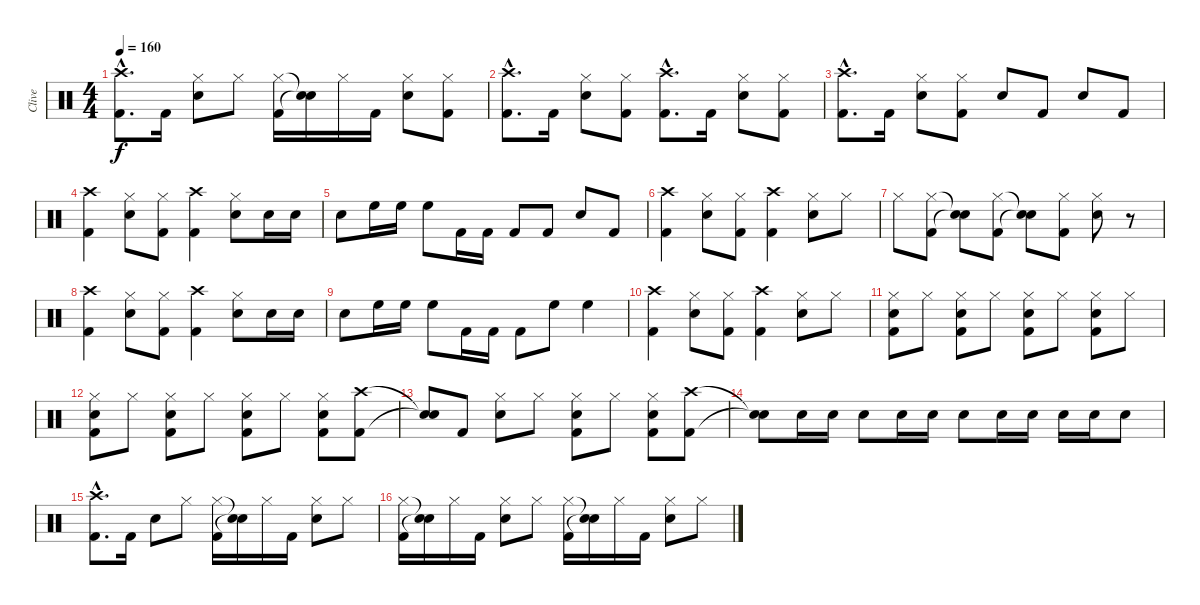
\track ("Clive" "Clive") {instrument percussion}
\staff {score}
\articulation defaults
\ts (4 4)
\tempo 160
\clef neutral
\ks c
("Crash high (hit)"{hac} "Kick (hit) 2"{hac}).8{d dy f} "Kick (hit) 2".16 ("Hi-Hat (closed)" "Snare (hit) 2").8 "Hi-Hat (closed)".8 ("Hi-Hat (closed)" "Kick (hit) 2").16 ("Snare (hit)"{t} "Snare (hit)"{t}).16 "Hi-Hat (closed)".16 "Kick (hit) 2".16 ("Hi-Hat (closed)" "Snare (hit) 2").8 ("Hi-Hat (closed)" "Kick (hit) 2").8 |
("Crash high (hit)"{hac} "Kick (hit) 2"{hac}).8{d} "Kick (hit) 2".16 ("Hi-Hat (closed)" "Snare (hit) 2").8 ("Hi-Hat (closed)" "Kick (hit) 2").8 ("Crash high (hit)"{hac} "Kick (hit) 2"{hac}).8{d} "Kick (hit) 2".16 ("Hi-Hat (closed)" "Snare (hit) 2").8 ("Hi-Hat (closed)" "Kick (hit) 2").8 |
("Crash high (hit)"{hac} "Kick (hit) 2"{hac}).8{d} "Kick (hit) 2".16 ("Hi-Hat (closed)" "Snare (hit) 2").8 ("Hi-Hat (closed)" "Kick (hit) 2").8 "Snare (hit) 2".8 "Kick (hit) 2".8 "Snare (hit) 2".8 "Kick (hit) 2".8 |
("Crash high (hit)" "Kick (hit) 2").4 ("Hi-Hat (closed)" "Snare (hit) 2").8 ("Hi-Hat (closed)" "Kick (hit) 2").8 ("Crash high (hit)" "Kick (hit) 2").4 ("Hi-Hat (closed)" "Snare (hit) 2").8 "Snare (hit) 2".16 "Snare (hit) 2".16 |
"Snare (hit) 2".8 "High Floor Tom (hit)".16 "High Floor Tom (hit)".16 "High Floor Tom (hit)".8 "Kick (hit) 2".16 "Kick (hit) 2".16 "Kick (hit) 2".8 "Kick (hit) 2".8 "Snare (hit) 2".8 "Kick (hit) 2".8 |
("Crash high (hit)" "Kick (hit) 2").4 ("Hi-Hat (closed)" "Snare (hit) 2").8 ("Hi-Hat (closed)" "Kick (hit) 2").8 ("Crash high (hit)" "Kick (hit) 2").4 ("Hi-Hat (closed)" "Snare (hit) 2").8 "Hi-Hat (closed)".8 |
"Hi-Hat (closed)".8 ("Hi-Hat (closed)" "Kick (hit) 2").8 ("Snare (hit)"{t} "Snare (hit)"{t}).8 ("Hi-Hat (closed)" "Kick (hit) 2").8 ("Snare (hit)"{t} "Snare (hit)"{t}).8 ("Hi-Hat (closed)" "Kick (hit) 2").8 ("Hi-Hat (closed)" "Snare (hit) 2").8 r.8 |
("Crash high (hit)" "Kick (hit) 2").4 ("Hi-Hat (closed)" "Snare (hit) 2").8 ("Hi-Hat (closed)" "Kick (hit) 2").8 ("Crash high (hit)" "Kick (hit) 2").4 ("Hi-Hat (closed)" "Snare (hit) 2").8 "Snare (hit) 2".16 "Snare (hit) 2".16 |
"Snare (hit) 2".8 "High Floor Tom (hit)".16 "High Floor Tom (hit)".16 "High Floor Tom (hit)".8 "Kick (hit) 2".16 "Kick (hit) 2".16 "Kick (hit) 2".8 "High Floor Tom (hit)".8 "High Floor Tom (hit)".4 |
("Crash high (hit)" "Kick (hit) 2").4 ("Hi-Hat (closed)" "Snare (hit) 2").8 ("Hi-Hat (closed)" "Kick (hit) 2").8 ("Crash high (hit)" "Kick (hit) 2").4 ("Hi-Hat (closed)" "Snare (hit) 2").8 "Hi-Hat (closed)".8 |
("Hi-Hat (closed)" "Snare (hit) 2" "Kick (hit) 2").8 "Hi-Hat (closed)".8 ("Hi-Hat (closed)" "Snare (hit) 2" "Kick (hit) 2").8 "Hi-Hat (closed)".8 ("Hi-Hat (closed)" "Snare (hit) 2" "Kick (hit) 2").8 "Hi-Hat (closed)".8 ("Hi-Hat (closed)" "Snare (hit) 2" "Kick (hit) 2").8 "Hi-Hat (closed)".8 |
("Hi-Hat (closed)" "Snare (hit) 2" "Kick (hit) 2").8 "Hi-Hat (closed)".8 ("Hi-Hat (closed)" "Snare (hit) 2" "Kick (hit) 2").8 "Hi-Hat (closed)".8 ("Hi-Hat (closed)" "Snare (hit) 2" "Kick (hit) 2").8 "Hi-Hat (closed)".8 ("Hi-Hat (closed)" "Snare (hit) 2" "Kick (hit) 2").8 ("Crash high (hit)" "Kick (hit) 2").8 |
("Snare (hit)"{t} "Snare (hit)"{t}).8 "Kick (hit) 2".8 ("Hi-Hat (closed)" "Snare (hit) 2").8 "Hi-Hat (closed)".8 ("Hi-Hat (closed)" "Snare (hit) 2" "Kick (hit) 2").8 "Hi-Hat (closed)".8 ("Hi-Hat (closed)" "Snare (hit) 2" "Kick (hit) 2").8 ("Crash high (hit)" "Kick (hit) 2").8 |
("Snare (hit)"{t} "Snare (hit)"{t}).8 "Snare (hit) 2".16 "Snare (hit) 2".16 "Snare (hit) 2".8 "Snare (hit) 2".16 "Snare (hit) 2".16 "Snare (hit) 2".8 "Snare (hit) 2".16 "Snare (hit) 2".16 "Snare (hit) 2".16 "Snare (hit) 2".16 "Snare (hit) 2".8 |
("Crash high (hit)"{hac} "Kick (hit) 2"{hac}).8{d} "Kick (hit) 2".16 "Snare (hit) 2".8 "Hi-Hat (closed)".8 ("Hi-Hat (closed)" "Kick (hit) 2").16 ("Snare (hit)"{t} "Snare (hit)"{t}).16 "Hi-Hat (closed)".16 "Kick (hit) 2".16 ("Hi-Hat (closed)" "Snare (hit) 2").8 "Hi-Hat (closed)".8 |
("Hi-Hat (closed)" "Kick (hit) 2").16 ("Snare (hit)"{t} "Snare (hit)"{t}).16 "Hi-Hat (closed)".16 "Kick (hit) 2".16 ("Hi-Hat (closed)" "Snare (hit) 2").8 "Hi-Hat (closed)".8 ("Hi-Hat (closed)" "Kick (hit) 2").16 ("Snare (hit)"{t} "Snare (hit)"{t}).16 "Hi-Hat (closed)".16 "Kick (hit) 2".16 ("Hi-Hat (closed)" "Snare (hit) 2").8 "Hi-Hat (closed)".8
